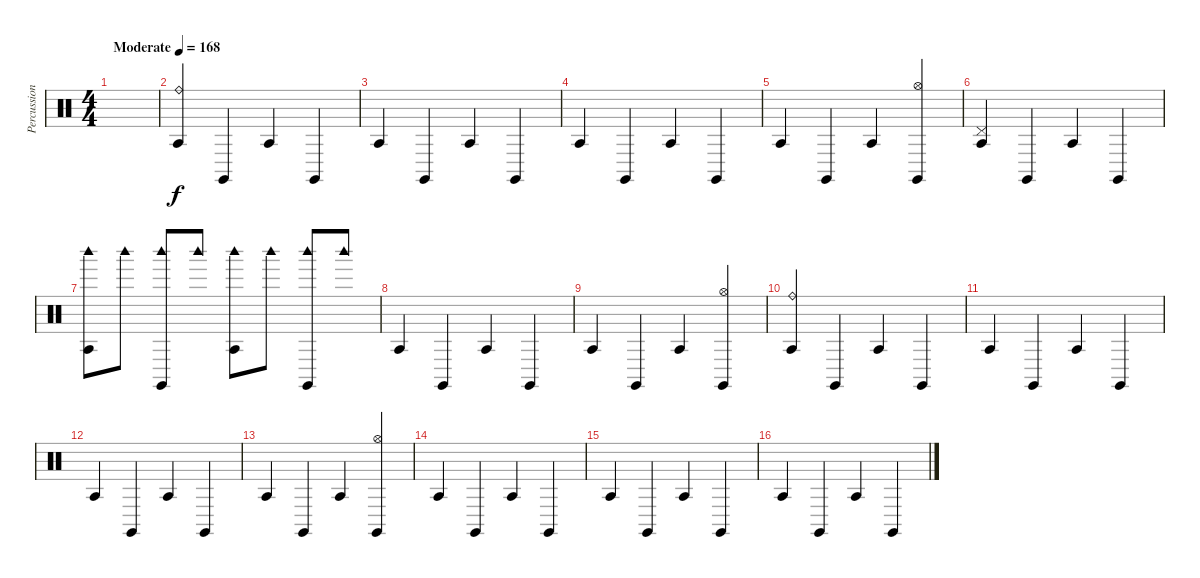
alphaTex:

\track ("Percussion" "Percussion") {instrument percussion}
\staff {score}
\articulation defaults
\ts (4 4)
\tempo (168 "Moderate")
\clef neutral
\ks c
|
("Ride (bell)" "Agogo tow (hit)").4 "Claves (hit)".4 "Agogo tow (hit)".4 "Claves (hit)".4 |
"Agogo tow (hit)".4 "Claves (hit)".4 "Agogo tow (hit)".4 "Claves (hit)".4 |
"Agogo tow (hit)".4 "Claves (hit)".4 "Agogo tow (hit)".4 "Claves (hit)".4 |
"Agogo tow (hit)".4 "Claves (hit)".4 "Agogo tow (hit)".4 ("Hi-Hat (open)" "Claves (hit)").4 |
("Pedal Hi-Hat (hit)" "Agogo tow (hit)").4 "Claves (hit)".4 "Agogo tow (hit)".4 "Claves (hit)".4 |
("Woodblock high (hit)" "Agogo tow (hit)").8 "Woodblock high (hit)".8 ("Woodblock high (hit)" "Claves (hit)").8 "Woodblock high (hit)".8 ("Woodblock high (hit)" "Agogo tow (hit)").8 "Woodblock high (hit)".8 ("Woodblock high (hit)" "Claves (hit)").8 "Woodblock high (hit)".8 |
"Agogo tow (hit)".4 "Claves (hit)".4 "Agogo tow (hit)".4 "Claves (hit)".4 |
"Agogo tow (hit)".4 "Claves (hit)".4 "Agogo tow (hit)".4 ("Hi-Hat (open)" "Claves (hit)").4 |
("Ride (bell)" "Agogo tow (hit)").4 "Claves (hit)".4 "Agogo tow (hit)".4 "Claves (hit)".4 |
"Agogo tow (hit)".4 "Claves (hit)".4 "Agogo tow (hit)".4 "Claves (hit)".4 |
"Agogo tow (hit)".4 "Claves (hit)".4 "Agogo tow (hit)".4 "Claves (hit)".4 |
"Agogo tow (hit)".4 "Claves (hit)".4 "Agogo tow (hit)".4 ("Hi-Hat (open)" "Claves (hit)").4 |
"Agogo tow (hit)".4 "Claves (hit)".4 "Agogo tow (hit)".4 "Claves (hit)".4 |
"Agogo tow (hit)".4 "Claves (hit)".4 "Agogo tow (hit)".4 "Claves (hit)".4 |
"Agogo tow (hit)".4 "Claves (hit)".4 "Agogo tow (hit)".4 "Claves (hit)".4
